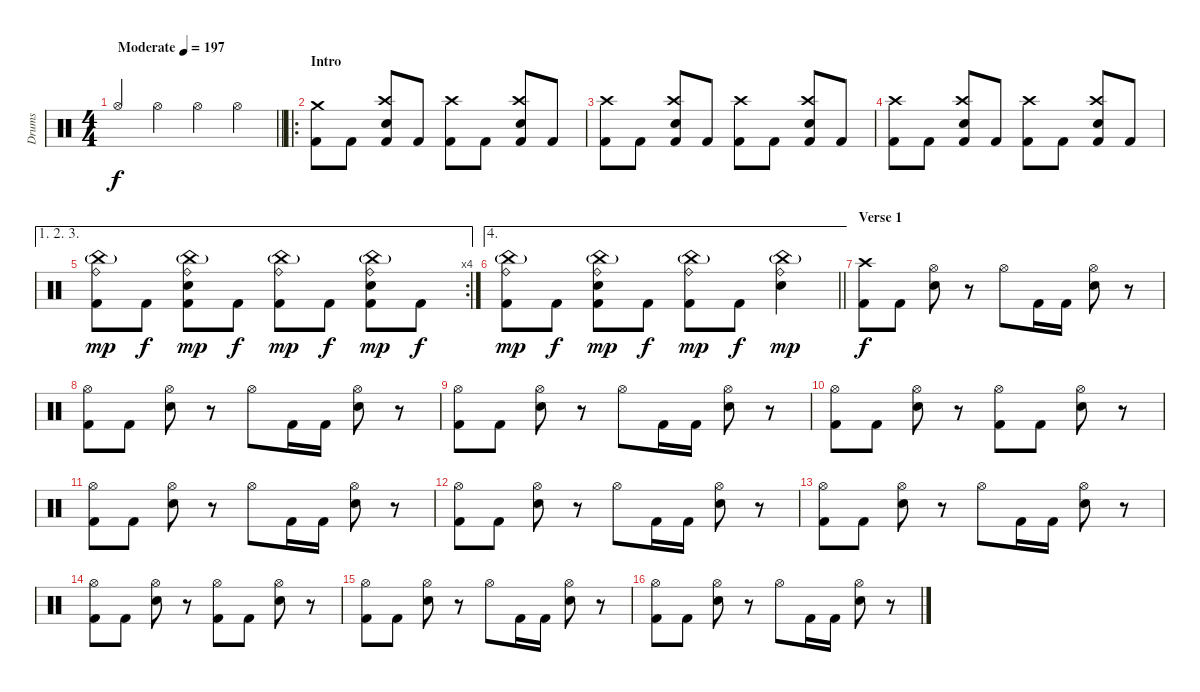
\track ("Drums" "Drums") {instrument percussion}
\staff {score}
\articulation defaults
\ts (4 4)
\tempo (197 "Moderate")
\clef neutral
\barLineRight lightlight
\ks c "Hi-Hat (open)".4{dy f beam Up} "Hi-Hat (open)".4 "Hi-Hat (open)".4 "Hi-Hat (open)".4
|
\ro
\section ("" "Intro")
("Crash medium (hit)" "Kick (hit) 2").8 "Kick (hit) 2".8 ("Crash high (hit)" "Electric Snare (hit)" "Kick (hit) 2").8 "Kick (hit) 2".8 ("Crash high (hit)" "Kick (hit) 2").8 "Kick (hit) 2".8 ("Crash high (hit)" "Electric Snare (hit)" "Kick (hit) 2").8 "Kick (hit) 2".8 |
("Crash high (hit)" "Kick (hit) 2").8 "Kick (hit) 2".8 ("Crash high (hit)" "Electric Snare (hit)" "Kick (hit) 2").8 "Kick (hit) 2".8 ("Crash high (hit)" "Kick (hit) 2").8 "Kick (hit) 2".8 ("Crash high (hit)" "Electric Snare (hit)" "Kick (hit) 2").8 "Kick (hit) 2".8 |
("Crash high (hit)" "Kick (hit) 2").8 "Kick (hit) 2".8 ("Crash high (hit)" "Electric Snare (hit)" "Kick (hit) 2").8 "Kick (hit) 2".8 ("Crash high (hit)" "Kick (hit) 2").8 "Kick (hit) 2".8 ("Crash high (hit)" "Electric Snare (hit)" "Kick (hit) 2").8 "Kick (hit) 2".8 |
\ae (1 2 3)
\rc 4
("China (hit)"{g} "Ride (bell)" "Kick (hit) 2").8{dy mp} "Kick (hit) 2".8{dy f} ("China (hit)"{g} "Ride (bell)" "Electric Snare (hit)" "Kick (hit) 2").8{dy mp} "Kick (hit) 2".8{dy f} ("China (hit)"{g} "Ride (bell)" "Kick (hit) 2").8{dy mp} "Kick (hit) 2".8{dy f} ("China (hit)"{g} "Ride (bell)" "Electric Snare (hit)" "Kick (hit) 2").8{dy mp} "Kick (hit) 2".8{dy f} |
\ae 4
\barLineRight lightlight
("China (hit)"{g} "Ride (bell)" "Kick (hit) 2").8{dy mp} "Kick (hit) 2".8{dy f} ("China (hit)"{g} "Ride (bell)" "Electric Snare (hit)" "Kick (hit) 2").8{dy mp} "Kick (hit) 2".8{dy f} ("China (hit)"{g} "Ride (bell)" "Kick (hit) 2").8{dy mp} "Kick (hit) 2".8{dy f} ("China (hit)"{g} "Ride (bell)" "Electric Snare (hit)").4{dy mp} |
\section ("" "Verse 1")
("Crash high (hit)" "Kick (hit) 2").8{dy f} "Kick (hit) 2".8 ("Hi-Hat (open)" "Electric Snare (hit)").8 r.8 "Hi-Hat (open)".8 "Kick (hit) 2".16 "Kick (hit) 2".16 ("Hi-Hat (open)" "Electric Snare (hit)").8 r.8 |
("Hi-Hat (open)" "Kick (hit) 2").8 "Kick (hit) 2".8 ("Hi-Hat (open)" "Electric Snare (hit)").8 r.8 "Hi-Hat (open)".8 "Kick (hit) 2".16 "Kick (hit) 2".16 ("Hi-Hat (open)" "Electric Snare (hit)").8 r.8 |
("Hi-Hat (open)" "Kick (hit) 2").8 "Kick (hit) 2".8 ("Hi-Hat (open)" "Electric Snare (hit)").8 r.8 "Hi-Hat (open)".8 "Kick (hit) 2".16 "Kick (hit) 2".16 ("Hi-Hat (open)" "Electric Snare (hit)").8 r.8 |
("Hi-Hat (open)" "Kick (hit) 2").8 "Kick (hit) 2".8 ("Hi-Hat (open)" "Electric Snare (hit)").8 r.8 ("Hi-Hat (open)" "Kick (hit) 2").8 "Kick (hit) 2".8 ("Hi-Hat (open)" "Electric Snare (hit)").8 r.8 |
("Hi-Hat (open)" "Kick (hit) 2").8 "Kick (hit) 2".8 ("Hi-Hat (open)" "Electric Snare (hit)").8 r.8 "Hi-Hat (open)".8 "Kick (hit) 2".16 "Kick (hit) 2".16 ("Hi-Hat (open)" "Electric Snare (hit)").8 r.8 |
("Hi-Hat (open)" "Kick (hit) 2").8 "Kick (hit) 2".8 ("Hi-Hat (open)" "Electric Snare (hit)").8 r.8 "Hi-Hat (open)".8 "Kick (hit) 2".16 "Kick (hit) 2".16 ("Hi-Hat (open)" "Electric Snare (hit)").8 r.8 |
("Hi-Hat (open)" "Kick (hit) 2").8 "Kick (hit) 2".8 ("Hi-Hat (open)" "Electric Snare (hit)").8 r.8 "Hi-Hat (open)".8 "Kick (hit) 2".16 "Kick (hit) 2".16 ("Hi-Hat (open)" "Electric Snare (hit)").8 r.8 |
("Hi-Hat (open)" "Kick (hit) 2").8 "Kick (hit) 2".8 ("Hi-Hat (open)" "Electric Snare (hit)").8 r.8 ("Hi-Hat (open)" "Kick (hit) 2").8 "Kick (hit) 2".8 ("Hi-Hat (open)" "Electric Snare (hit)").8 r.8 |
("Hi-Hat (open)" "Kick (hit) 2").8 "Kick (hit) 2".8 ("Hi-Hat (open)" "Electric Snare (hit)").8 r.8 "Hi-Hat (open)".8 "Kick (hit) 2".16 "Kick (hit) 2".16 ("Hi-Hat (open)" "Electric Snare (hit)").8 r.8 |
("Hi-Hat (open)" "Kick (hit) 2").8 "Kick (hit) 2".8 ("Hi-Hat (open)" "Electric Snare (hit)").8 r.8 "Hi-Hat (open)".8 "Kick (hit) 2".16 "Kick (hit) 2".16 ("Hi-Hat (open)" "Electric Snare (hit)").8 r.8
